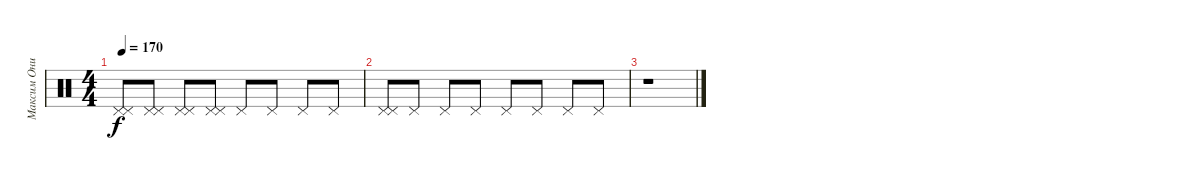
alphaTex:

\track ("Максим Онищенко" "Максим Они") {instrument percussion}
\staff {score}
\articulation defaults
\ts (4 4)
\tempo 170
\clef neutral
\ks c
("Pedal Hi-Hat (hit)" "Pedal Hi-Hat (hit)").8{dy f} ("Pedal Hi-Hat (hit)" "Pedal Hi-Hat (hit)").8 ("Pedal Hi-Hat (hit)" "Pedal Hi-Hat (hit)").8 ("Pedal Hi-Hat (hit)" "Pedal Hi-Hat (hit)").8 "Pedal Hi-Hat (hit)".8 "Pedal Hi-Hat (hit)".8 "Pedal Hi-Hat (hit)".8 "Pedal Hi-Hat (hit)".8 |
("Pedal Hi-Hat (hit)" "Pedal Hi-Hat (hit)").8 "Pedal Hi-Hat (hit)".8 "Pedal Hi-Hat (hit)".8 "Pedal Hi-Hat (hit)".8 "Pedal Hi-Hat (hit)".8 "Pedal Hi-Hat (hit)".8 "Pedal Hi-Hat (hit)".8 "Pedal Hi-Hat (hit)".8 |
r.1
